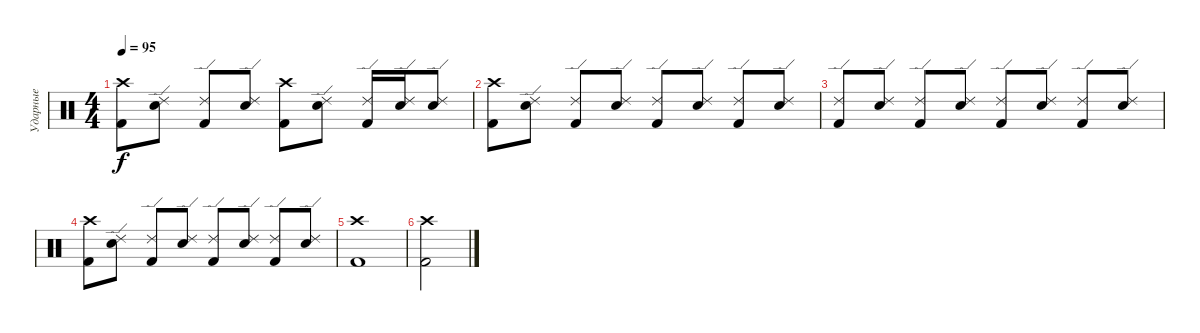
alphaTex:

\track ("Ударные" "Ударные") {instrument percussion}
\staff {score}
\articulation defaults
\ts (4 4)
\tempo 95
\clef neutral
\ks c
("Kick (hit) 2" "Crash high (hit)").8{dy f} ("Electric Snare (hit)" "Ride (edge) 2").8 ("Kick (hit) 2" "Ride (edge) 2").8 ("Electric Snare (hit)" "Ride (edge) 2").8 ("Kick (hit) 2" "Crash high (hit)").8 ("Electric Snare (hit)" "Ride (edge) 2").8 ("Kick (hit) 2" "Ride (edge) 2").16 ("Electric Snare (hit)" "Ride (edge) 2").16 ("Electric Snare (hit)" "Ride (edge) 2").8 |
("Kick (hit) 2" "Crash high (hit)").8 ("Electric Snare (hit)" "Ride (edge) 2").8 ("Kick (hit) 2" "Ride (edge) 2").8 ("Electric Snare (hit)" "Ride (edge) 2").8 ("Kick (hit) 2" "Ride (edge) 2").8 ("Electric Snare (hit)" "Ride (edge) 2").8 ("Kick (hit) 2" "Ride (edge) 2").8 ("Electric Snare (hit)" "Ride (edge) 2").8 |
("Kick (hit) 2" "Ride (edge) 2").8 ("Electric Snare (hit)" "Ride (edge) 2").8 ("Kick (hit) 2" "Ride (edge) 2").8 ("Electric Snare (hit)" "Ride (edge) 2").8 ("Kick (hit) 2" "Ride (edge) 2").8 ("Electric Snare (hit)" "Ride (edge) 2").8 ("Kick (hit) 2" "Ride (edge) 2").8 ("Electric Snare (hit)" "Ride (edge) 2").8 |
("Kick (hit) 2" "Crash high (hit)").8 ("Electric Snare (hit)" "Ride (edge) 2").8 ("Kick (hit) 2" "Ride (edge) 2").8 ("Electric Snare (hit)" "Ride (edge) 2").8 ("Kick (hit) 2" "Ride (edge) 2").8 ("Electric Snare (hit)" "Ride (edge) 2").8 ("Kick (hit) 2" "Ride (edge) 2").8 ("Electric Snare (hit)" "Ride (edge) 2").8 |
("Kick (hit) 2" "Crash high (hit)").1 |
("Kick (hit) 2" "Crash high (hit)").2
